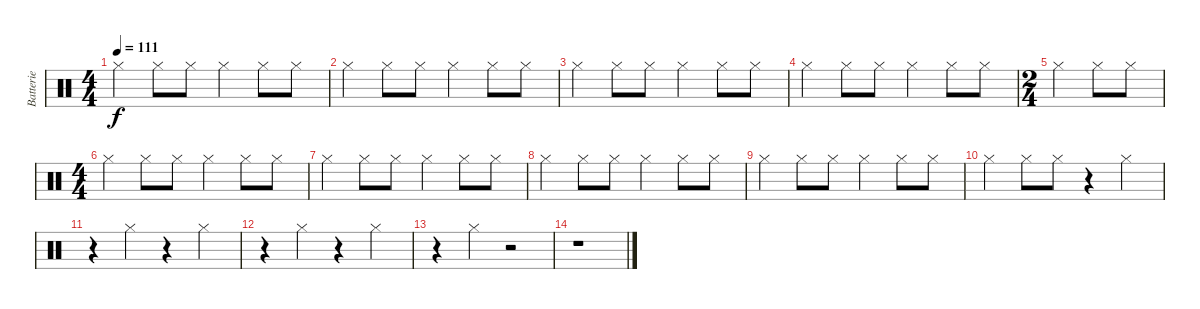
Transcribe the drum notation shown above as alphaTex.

\track ("Batterie" "Batterie") {instrument percussion}
\staff {score}
\articulation defaults
\ts (4 4)
\tempo 111
\clef neutral
\ks c "Hi-Hat (closed)".4{dy f} "Hi-Hat (closed)".8 "Hi-Hat (closed)".8 "Hi-Hat (closed)".4 "Hi-Hat (closed)".8 "Hi-Hat (closed)".8
|
"Hi-Hat (closed)".4 "Hi-Hat (closed)".8 "Hi-Hat (closed)".8 "Hi-Hat (closed)".4 "Hi-Hat (closed)".8 "Hi-Hat (closed)".8 |
"Hi-Hat (closed)".4 "Hi-Hat (closed)".8 "Hi-Hat (closed)".8 "Hi-Hat (closed)".4 "Hi-Hat (closed)".8 "Hi-Hat (closed)".8 |
"Hi-Hat (closed)".4 "Hi-Hat (closed)".8 "Hi-Hat (closed)".8 "Hi-Hat (closed)".4 "Hi-Hat (closed)".8 "Hi-Hat (closed)".8 |
\ts (2 4)
"Hi-Hat (closed)".4 "Hi-Hat (closed)".8 "Hi-Hat (closed)".8 |
\ts (4 4)
"Hi-Hat (closed)".4 "Hi-Hat (closed)".8 "Hi-Hat (closed)".8 "Hi-Hat (closed)".4 "Hi-Hat (closed)".8 "Hi-Hat (closed)".8 |
"Hi-Hat (closed)".4 "Hi-Hat (closed)".8 "Hi-Hat (closed)".8 "Hi-Hat (closed)".4 "Hi-Hat (closed)".8 "Hi-Hat (closed)".8 |
"Hi-Hat (closed)".4 "Hi-Hat (closed)".8 "Hi-Hat (closed)".8 "Hi-Hat (closed)".4 "Hi-Hat (closed)".8 "Hi-Hat (closed)".8 |
"Hi-Hat (closed)".4 "Hi-Hat (closed)".8 "Hi-Hat (closed)".8 "Hi-Hat (closed)".4 "Hi-Hat (closed)".8 "Hi-Hat (closed)".8 |
"Hi-Hat (closed)".4 "Hi-Hat (closed)".8 "Hi-Hat (closed)".8 r.4 "Hi-Hat (closed)".4 |
r.4 "Hi-Hat (closed)".4 r.4 "Hi-Hat (closed)".4 |
r.4 "Hi-Hat (closed)".4 r.4 "Hi-Hat (closed)".4 |
r.4 "Hi-Hat (closed)".4 r.2 |
r.1
